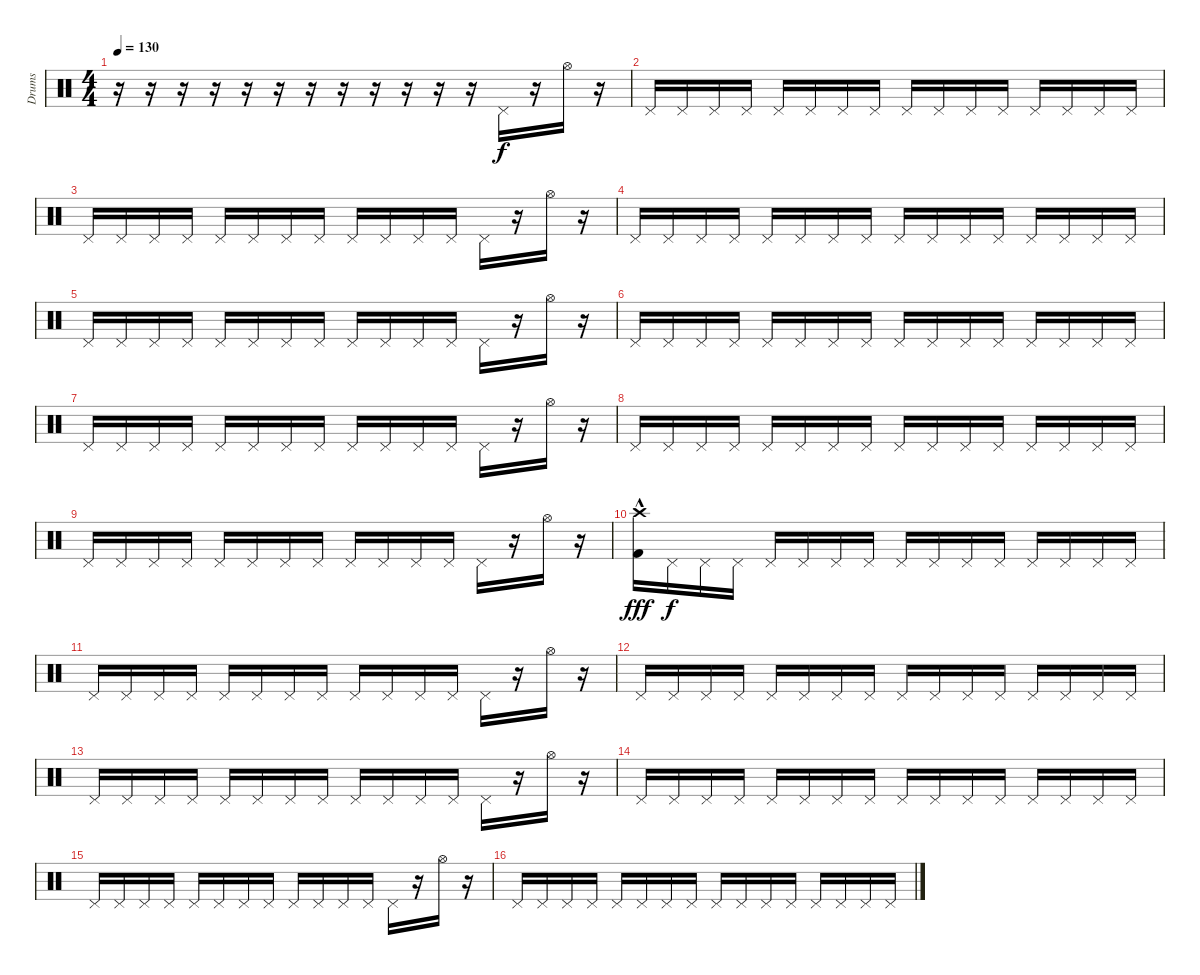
\track ("Drums" "Drums") {instrument percussion}
\staff {score}
\articulation defaults
\ts (4 4)
\tempo 130
\clef neutral
\ks c
r.16{dy fff} r.16 r.16 r.16 r.16 r.16 r.16 r.16 r.16 r.16 r.16 r.16 "Pedal Hi-Hat (hit)".16{dy f} r.16 "Hi-Hat (open)".16 r.16 |
"Pedal Hi-Hat (hit)".16 "Pedal Hi-Hat (hit)".16 "Pedal Hi-Hat (hit)".16 "Pedal Hi-Hat (hit)".16 "Pedal Hi-Hat (hit)".16 "Pedal Hi-Hat (hit)".16 "Pedal Hi-Hat (hit)".16 "Pedal Hi-Hat (hit)".16 "Pedal Hi-Hat (hit)".16 "Pedal Hi-Hat (hit)".16 "Pedal Hi-Hat (hit)".16 "Pedal Hi-Hat (hit)".16 "Pedal Hi-Hat (hit)".16 "Pedal Hi-Hat (hit)".16 "Pedal Hi-Hat (hit)".16 "Pedal Hi-Hat (hit)".16 |
"Pedal Hi-Hat (hit)".16 "Pedal Hi-Hat (hit)".16 "Pedal Hi-Hat (hit)".16 "Pedal Hi-Hat (hit)".16 "Pedal Hi-Hat (hit)".16 "Pedal Hi-Hat (hit)".16 "Pedal Hi-Hat (hit)".16 "Pedal Hi-Hat (hit)".16 "Pedal Hi-Hat (hit)".16 "Pedal Hi-Hat (hit)".16 "Pedal Hi-Hat (hit)".16 "Pedal Hi-Hat (hit)".16 "Pedal Hi-Hat (hit)".16 r.16 "Hi-Hat (open)".16 r.16 |
"Pedal Hi-Hat (hit)".16 "Pedal Hi-Hat (hit)".16 "Pedal Hi-Hat (hit)".16 "Pedal Hi-Hat (hit)".16 "Pedal Hi-Hat (hit)".16 "Pedal Hi-Hat (hit)".16 "Pedal Hi-Hat (hit)".16 "Pedal Hi-Hat (hit)".16 "Pedal Hi-Hat (hit)".16 "Pedal Hi-Hat (hit)".16 "Pedal Hi-Hat (hit)".16 "Pedal Hi-Hat (hit)".16 "Pedal Hi-Hat (hit)".16 "Pedal Hi-Hat (hit)".16 "Pedal Hi-Hat (hit)".16 "Pedal Hi-Hat (hit)".16 |
"Pedal Hi-Hat (hit)".16 "Pedal Hi-Hat (hit)".16 "Pedal Hi-Hat (hit)".16 "Pedal Hi-Hat (hit)".16 "Pedal Hi-Hat (hit)".16 "Pedal Hi-Hat (hit)".16 "Pedal Hi-Hat (hit)".16 "Pedal Hi-Hat (hit)".16 "Pedal Hi-Hat (hit)".16 "Pedal Hi-Hat (hit)".16 "Pedal Hi-Hat (hit)".16 "Pedal Hi-Hat (hit)".16 "Pedal Hi-Hat (hit)".16 r.16 "Hi-Hat (open)".16 r.16 |
"Pedal Hi-Hat (hit)".16 "Pedal Hi-Hat (hit)".16 "Pedal Hi-Hat (hit)".16 "Pedal Hi-Hat (hit)".16 "Pedal Hi-Hat (hit)".16 "Pedal Hi-Hat (hit)".16 "Pedal Hi-Hat (hit)".16 "Pedal Hi-Hat (hit)".16 "Pedal Hi-Hat (hit)".16 "Pedal Hi-Hat (hit)".16 "Pedal Hi-Hat (hit)".16 "Pedal Hi-Hat (hit)".16 "Pedal Hi-Hat (hit)".16 "Pedal Hi-Hat (hit)".16 "Pedal Hi-Hat (hit)".16 "Pedal Hi-Hat (hit)".16 |
"Pedal Hi-Hat (hit)".16 "Pedal Hi-Hat (hit)".16 "Pedal Hi-Hat (hit)".16 "Pedal Hi-Hat (hit)".16 "Pedal Hi-Hat (hit)".16 "Pedal Hi-Hat (hit)".16 "Pedal Hi-Hat (hit)".16 "Pedal Hi-Hat (hit)".16 "Pedal Hi-Hat (hit)".16 "Pedal Hi-Hat (hit)".16 "Pedal Hi-Hat (hit)".16 "Pedal Hi-Hat (hit)".16 "Pedal Hi-Hat (hit)".16 r.16 "Hi-Hat (open)".16 r.16 |
"Pedal Hi-Hat (hit)".16 "Pedal Hi-Hat (hit)".16 "Pedal Hi-Hat (hit)".16 "Pedal Hi-Hat (hit)".16 "Pedal Hi-Hat (hit)".16 "Pedal Hi-Hat (hit)".16 "Pedal Hi-Hat (hit)".16 "Pedal Hi-Hat (hit)".16 "Pedal Hi-Hat (hit)".16 "Pedal Hi-Hat (hit)".16 "Pedal Hi-Hat (hit)".16 "Pedal Hi-Hat (hit)".16 "Pedal Hi-Hat (hit)".16 "Pedal Hi-Hat (hit)".16 "Pedal Hi-Hat (hit)".16 "Pedal Hi-Hat (hit)".16 |
"Pedal Hi-Hat (hit)".16 "Pedal Hi-Hat (hit)".16 "Pedal Hi-Hat (hit)".16 "Pedal Hi-Hat (hit)".16 "Pedal Hi-Hat (hit)".16 "Pedal Hi-Hat (hit)".16 "Pedal Hi-Hat (hit)".16 "Pedal Hi-Hat (hit)".16 "Pedal Hi-Hat (hit)".16 "Pedal Hi-Hat (hit)".16 "Pedal Hi-Hat (hit)".16 "Pedal Hi-Hat (hit)".16 "Pedal Hi-Hat (hit)".16 r.16 "Hi-Hat (open)".16 r.16 |
("Crash high (hit)" "Kick (hit) 2"{hac}).16{dy fff} "Pedal Hi-Hat (hit)".16{dy f} "Pedal Hi-Hat (hit)".16 "Pedal Hi-Hat (hit)".16 "Pedal Hi-Hat (hit)".16 "Pedal Hi-Hat (hit)".16 "Pedal Hi-Hat (hit)".16 "Pedal Hi-Hat (hit)".16 "Pedal Hi-Hat (hit)".16 "Pedal Hi-Hat (hit)".16 "Pedal Hi-Hat (hit)".16 "Pedal Hi-Hat (hit)".16 "Pedal Hi-Hat (hit)".16 "Pedal Hi-Hat (hit)".16 "Pedal Hi-Hat (hit)".16 "Pedal Hi-Hat (hit)".16 |
"Pedal Hi-Hat (hit)".16 "Pedal Hi-Hat (hit)".16 "Pedal Hi-Hat (hit)".16 "Pedal Hi-Hat (hit)".16 "Pedal Hi-Hat (hit)".16 "Pedal Hi-Hat (hit)".16 "Pedal Hi-Hat (hit)".16 "Pedal Hi-Hat (hit)".16 "Pedal Hi-Hat (hit)".16 "Pedal Hi-Hat (hit)".16 "Pedal Hi-Hat (hit)".16 "Pedal Hi-Hat (hit)".16 "Pedal Hi-Hat (hit)".16 r.16 "Hi-Hat (open)".16 r.16 |
"Pedal Hi-Hat (hit)".16 "Pedal Hi-Hat (hit)".16 "Pedal Hi-Hat (hit)".16 "Pedal Hi-Hat (hit)".16 "Pedal Hi-Hat (hit)".16 "Pedal Hi-Hat (hit)".16 "Pedal Hi-Hat (hit)".16 "Pedal Hi-Hat (hit)".16 "Pedal Hi-Hat (hit)".16 "Pedal Hi-Hat (hit)".16 "Pedal Hi-Hat (hit)".16 "Pedal Hi-Hat (hit)".16 "Pedal Hi-Hat (hit)".16 "Pedal Hi-Hat (hit)".16 "Pedal Hi-Hat (hit)".16 "Pedal Hi-Hat (hit)".16 |
"Pedal Hi-Hat (hit)".16 "Pedal Hi-Hat (hit)".16 "Pedal Hi-Hat (hit)".16 "Pedal Hi-Hat (hit)".16 "Pedal Hi-Hat (hit)".16 "Pedal Hi-Hat (hit)".16 "Pedal Hi-Hat (hit)".16 "Pedal Hi-Hat (hit)".16 "Pedal Hi-Hat (hit)".16 "Pedal Hi-Hat (hit)".16 "Pedal Hi-Hat (hit)".16 "Pedal Hi-Hat (hit)".16 "Pedal Hi-Hat (hit)".16 r.16 "Hi-Hat (open)".16 r.16 |
"Pedal Hi-Hat (hit)".16 "Pedal Hi-Hat (hit)".16 "Pedal Hi-Hat (hit)".16 "Pedal Hi-Hat (hit)".16 "Pedal Hi-Hat (hit)".16 "Pedal Hi-Hat (hit)".16 "Pedal Hi-Hat (hit)".16 "Pedal Hi-Hat (hit)".16 "Pedal Hi-Hat (hit)".16 "Pedal Hi-Hat (hit)".16 "Pedal Hi-Hat (hit)".16 "Pedal Hi-Hat (hit)".16 "Pedal Hi-Hat (hit)".16 "Pedal Hi-Hat (hit)".16 "Pedal Hi-Hat (hit)".16 "Pedal Hi-Hat (hit)".16 |
"Pedal Hi-Hat (hit)".16 "Pedal Hi-Hat (hit)".16 "Pedal Hi-Hat (hit)".16 "Pedal Hi-Hat (hit)".16 "Pedal Hi-Hat (hit)".16 "Pedal Hi-Hat (hit)".16 "Pedal Hi-Hat (hit)".16 "Pedal Hi-Hat (hit)".16 "Pedal Hi-Hat (hit)".16 "Pedal Hi-Hat (hit)".16 "Pedal Hi-Hat (hit)".16 "Pedal Hi-Hat (hit)".16 "Pedal Hi-Hat (hit)".16 r.16 "Hi-Hat (open)".16 r.16 |
"Pedal Hi-Hat (hit)".16 "Pedal Hi-Hat (hit)".16 "Pedal Hi-Hat (hit)".16 "Pedal Hi-Hat (hit)".16 "Pedal Hi-Hat (hit)".16 "Pedal Hi-Hat (hit)".16 "Pedal Hi-Hat (hit)".16 "Pedal Hi-Hat (hit)".16 "Pedal Hi-Hat (hit)".16 "Pedal Hi-Hat (hit)".16 "Pedal Hi-Hat (hit)".16 "Pedal Hi-Hat (hit)".16 "Pedal Hi-Hat (hit)".16 "Pedal Hi-Hat (hit)".16 "Pedal Hi-Hat (hit)".16 "Pedal Hi-Hat (hit)".16
